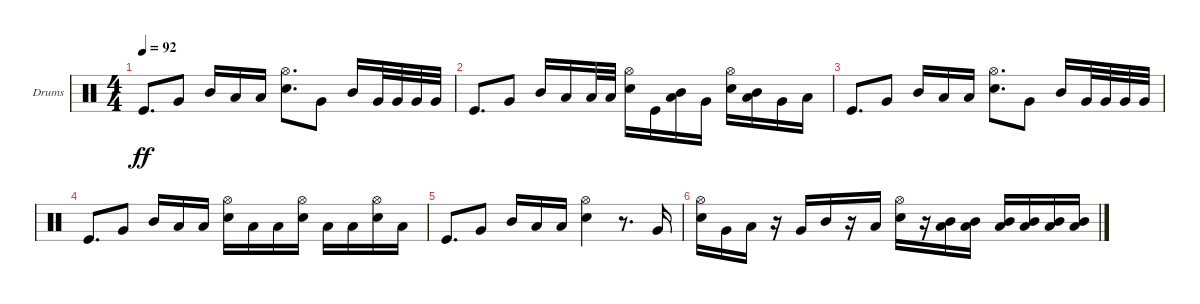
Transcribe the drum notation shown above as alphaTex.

\defaultSystemsLayout 4
\bracketExtendMode groupsimilarinstruments
\firstSystemTrackNameOrientation horizontal
\otherSystemsTrackNameOrientation horizontal
\track ("Drumkit" "Drums") {instrument percussion}
\staff {score}
\articulation defaults
\ts (4 4)
\tempo 92
\clef neutral
\ks c "Kick (hit)".8{d dy ff} "Very Low Tom (hit)".8 "Mid Tom (hit)".16 "Low Tom (hit)".16 "Low Tom (hit)".16
("Snare (hit) 2" "Hi-Hat (open)").8{d} "Very Low Tom (hit)".8 "Mid Tom (hit)".16 "Very Low Tom (hit)".32 "Very Low Tom (hit)".32 "Very Low Tom (hit)".32 "Very Low Tom (hit)".32 |
"Kick (hit)".8{d} "Very Low Tom (hit)".8 "Mid Tom (hit)".16 "Low Tom (hit)".16 "Low Tom (hit)".32 "Low Tom (hit)".32 ("Snare (hit) 2" "Hi-Hat (open)").16 "Kick (hit)".16 ("Mid Tom (hit)" "Low Tom (hit)").16 "Very Low Tom (hit)".16 ("Snare (hit) 2" "Hi-Hat (open)").16 ("Mid Tom (hit)" "Low Tom (hit)").16 "Very Low Tom (hit)".16 "Low Tom (hit)".16 |
"Kick (hit)".8{d} "Very Low Tom (hit)".8 "Mid Tom (hit)".16 "Low Tom (hit)".16 "Low Tom (hit)".16 ("Snare (hit) 2" "Hi-Hat (open)").8{d} "Very Low Tom (hit)".8 "Mid Tom (hit)".16 "Very Low Tom (hit)".32 "Very Low Tom (hit)".32 "Very Low Tom (hit)".32 "Very Low Tom (hit)".32 |
"Kick (hit)".8{d} "Very Low Tom (hit)".8 "Mid Tom (hit)".16 "Low Tom (hit)".16 "Low Tom (hit)".16 ("Snare (hit) 2" "Hi-Hat (open)").16 "Low Tom (hit)".16 "Low Tom (hit)".16 ("Snare (hit) 2" "Hi-Hat (open)").16 "Low Tom (hit)".16 "Low Tom (hit)".16 ("Snare (hit) 2" "Hi-Hat (open)").16 "Low Tom (hit)".16 |
"Kick (hit)".8{d} "Very Low Tom (hit)".8 "Mid Tom (hit)".16 "Low Tom (hit)".16 "Low Tom (hit)".16 ("Snare (hit) 2" "Hi-Hat (open)").4 r.8{d} "Very Low Tom (hit)".16 |
("Snare (hit) 2" "Hi-Hat (open)").16 "Very Low Tom (hit)".16 "Low Tom (hit)".16 r.16 "Very Low Tom (hit)".16 "Mid Tom (hit)".16 r.16 "Low Tom (hit)".16 ("Snare (hit) 2" "Hi-Hat (open)").16 r.16 ("Low Tom (hit)" "Mid Tom (hit)").16 ("Low Tom (hit)" "Mid Tom (hit)").16 ("Low Tom (hit)" "Mid Tom (hit)").16 ("Low Tom (hit)" "Mid Tom (hit)").16 ("Low Tom (hit)" "Mid Tom (hit)").16 ("Low Tom (hit)" "Mid Tom (hit)").16
